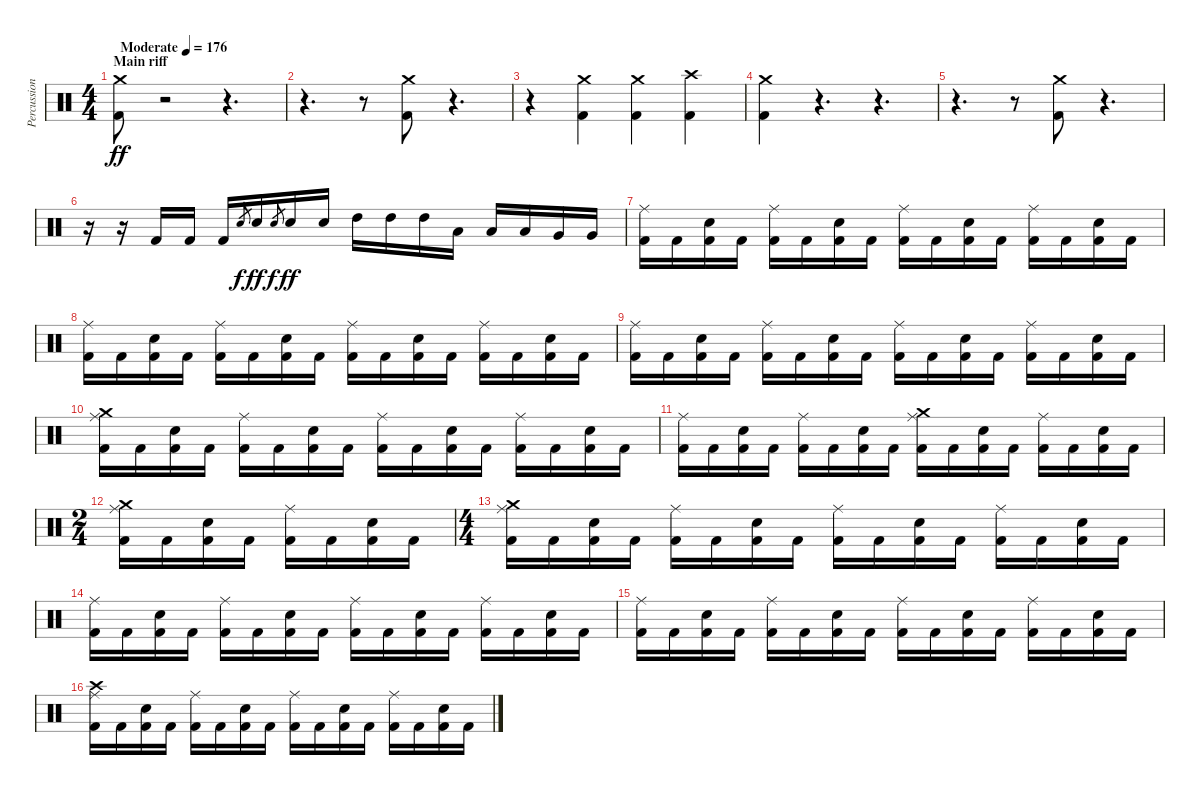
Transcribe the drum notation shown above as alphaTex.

\track ("Percussion" "Percussion") {instrument percussion}
\staff {score}
\articulation defaults
\ts (4 4)
\section ("" "Main riff")
\tempo (176 "Moderate")
\clef neutral
\ks c
("Kick (hit) 2" "Crash medium (hit)").8{dy ff} r.2 r.4{d} |
r.4{d} r.8 ("Kick (hit) 2" "Crash medium (hit)").8 r.4{d} |
r.4 ("Kick (hit) 2" "Crash medium (hit)").4 ("Kick (hit) 2" "Crash medium (hit)").4 ("Kick (hit) 2" "Crash high (hit)").4 |
("Kick (hit) 2" "Crash medium (hit)").4 r.4{d} r.4{d} |
r.4{d} r.8 ("Kick (hit) 2" "Crash medium (hit)").8 r.4{d} |
r.16 r.16 "Kick (hit) 2".16 "Kick (hit) 2".16 "Kick (hit) 2".16 "Electric Snare (hit)".8{gr dy f} "Electric Snare (hit)".16{dy ff} "Electric Snare (hit)".8{gr dy f} "Electric Snare (hit)".16{dy ff} "Electric Snare (hit)".16 "High Tom (hit)".16 "High Tom (hit)".16 "High Tom (hit)".16 "Low Tom (hit)".16 "Low Tom (hit)".16 "Low Tom (hit)".16 "Very Low Tom (hit)".16 "Very Low Tom (hit)".16 |
("Kick (hit) 2" "Ride (middle)").16 "Kick (hit) 2".16 ("Kick (hit) 2" "Electric Snare (hit)").16 "Kick (hit) 2".16 ("Kick (hit) 2" "Ride (middle)").16 "Kick (hit) 2".16 ("Kick (hit) 2" "Electric Snare (hit)").16 "Kick (hit) 2".16 ("Kick (hit) 2" "Ride (middle)").16 "Kick (hit) 2".16 ("Kick (hit) 2" "Electric Snare (hit)").16 "Kick (hit) 2".16 ("Kick (hit) 2" "Ride (middle)").16 "Kick (hit) 2".16 ("Kick (hit) 2" "Electric Snare (hit)").16 "Kick (hit) 2".16 |
("Kick (hit) 2" "Ride (middle)").16 "Kick (hit) 2".16 ("Kick (hit) 2" "Electric Snare (hit)").16 "Kick (hit) 2".16 ("Kick (hit) 2" "Ride (middle)").16 "Kick (hit) 2".16 ("Kick (hit) 2" "Electric Snare (hit)").16 "Kick (hit) 2".16 ("Kick (hit) 2" "Ride (middle)").16 "Kick (hit) 2".16 ("Kick (hit) 2" "Electric Snare (hit)").16 "Kick (hit) 2".16 ("Kick (hit) 2" "Ride (middle)").16 "Kick (hit) 2".16 ("Kick (hit) 2" "Electric Snare (hit)").16 "Kick (hit) 2".16 |
("Kick (hit) 2" "Ride (middle)").16 "Kick (hit) 2".16 ("Kick (hit) 2" "Electric Snare (hit)").16 "Kick (hit) 2".16 ("Kick (hit) 2" "Ride (middle)").16 "Kick (hit) 2".16 ("Kick (hit) 2" "Electric Snare (hit)").16 "Kick (hit) 2".16 ("Kick (hit) 2" "Ride (middle)").16 "Kick (hit) 2".16 ("Kick (hit) 2" "Electric Snare (hit)").16 "Kick (hit) 2".16 ("Kick (hit) 2" "Ride (middle)").16 "Kick (hit) 2".16 ("Kick (hit) 2" "Electric Snare (hit)").16 "Kick (hit) 2".16 |
("Kick (hit) 2" "Ride (middle)" "Crash medium (hit)").16 "Kick (hit) 2".16 ("Kick (hit) 2" "Electric Snare (hit)").16 "Kick (hit) 2".16 ("Kick (hit) 2" "Ride (middle)").16 "Kick (hit) 2".16 ("Kick (hit) 2" "Electric Snare (hit)").16 "Kick (hit) 2".16 ("Kick (hit) 2" "Ride (middle)").16 "Kick (hit) 2".16 ("Kick (hit) 2" "Electric Snare (hit)").16 "Kick (hit) 2".16 ("Kick (hit) 2" "Ride (middle)").16 "Kick (hit) 2".16 ("Kick (hit) 2" "Electric Snare (hit)").16 "Kick (hit) 2".16 |
("Kick (hit) 2" "Ride (middle)").16 "Kick (hit) 2".16 ("Kick (hit) 2" "Electric Snare (hit)").16 "Kick (hit) 2".16 ("Kick (hit) 2" "Ride (middle)").16 "Kick (hit) 2".16 ("Kick (hit) 2" "Electric Snare (hit)").16 "Kick (hit) 2".16 ("Kick (hit) 2" "Ride (middle)" "Crash medium (hit)").16 "Kick (hit) 2".16 ("Kick (hit) 2" "Electric Snare (hit)").16 "Kick (hit) 2".16 ("Kick (hit) 2" "Ride (middle)").16 "Kick (hit) 2".16 ("Kick (hit) 2" "Electric Snare (hit)").16 "Kick (hit) 2".16 |
\ts (2 4)
("Kick (hit) 2" "Ride (middle)" "Crash medium (hit)").16 "Kick (hit) 2".16 ("Kick (hit) 2" "Electric Snare (hit)").16 "Kick (hit) 2".16 ("Kick (hit) 2" "Ride (middle)").16 "Kick (hit) 2".16 ("Kick (hit) 2" "Electric Snare (hit)").16 "Kick (hit) 2".16 |
\ts (4 4)
("Kick (hit) 2" "Ride (middle)" "Crash medium (hit)").16 "Kick (hit) 2".16 ("Kick (hit) 2" "Electric Snare (hit)").16 "Kick (hit) 2".16 ("Kick (hit) 2" "Ride (middle)").16 "Kick (hit) 2".16 ("Kick (hit) 2" "Electric Snare (hit)").16 "Kick (hit) 2".16 ("Kick (hit) 2" "Ride (middle)").16 "Kick (hit) 2".16 ("Kick (hit) 2" "Electric Snare (hit)").16 "Kick (hit) 2".16 ("Kick (hit) 2" "Ride (middle)").16 "Kick (hit) 2".16 ("Kick (hit) 2" "Electric Snare (hit)").16 "Kick (hit) 2".16 |
("Kick (hit) 2" "Ride (middle)").16 "Kick (hit) 2".16 ("Kick (hit) 2" "Electric Snare (hit)").16 "Kick (hit) 2".16 ("Kick (hit) 2" "Ride (middle)").16 "Kick (hit) 2".16 ("Kick (hit) 2" "Electric Snare (hit)").16 "Kick (hit) 2".16 ("Kick (hit) 2" "Ride (middle)").16 "Kick (hit) 2".16 ("Kick (hit) 2" "Electric Snare (hit)").16 "Kick (hit) 2".16 ("Kick (hit) 2" "Ride (middle)").16 "Kick (hit) 2".16 ("Kick (hit) 2" "Electric Snare (hit)").16 "Kick (hit) 2".16 |
("Kick (hit) 2" "Ride (middle)").16 "Kick (hit) 2".16 ("Kick (hit) 2" "Electric Snare (hit)").16 "Kick (hit) 2".16 ("Kick (hit) 2" "Ride (middle)").16 "Kick (hit) 2".16 ("Kick (hit) 2" "Electric Snare (hit)").16 "Kick (hit) 2".16 ("Kick (hit) 2" "Ride (middle)").16 "Kick (hit) 2".16 ("Kick (hit) 2" "Electric Snare (hit)").16 "Kick (hit) 2".16 ("Kick (hit) 2" "Ride (middle)").16 "Kick (hit) 2".16 ("Kick (hit) 2" "Electric Snare (hit)").16 "Kick (hit) 2".16 |
("Kick (hit) 2" "Ride (middle)" "Crash high (hit)").16 "Kick (hit) 2".16 ("Kick (hit) 2" "Electric Snare (hit)").16 "Kick (hit) 2".16 ("Kick (hit) 2" "Ride (middle)").16 "Kick (hit) 2".16 ("Kick (hit) 2" "Electric Snare (hit)").16 "Kick (hit) 2".16 ("Kick (hit) 2" "Ride (middle)").16 "Kick (hit) 2".16 ("Kick (hit) 2" "Electric Snare (hit)").16 "Kick (hit) 2".16 ("Kick (hit) 2" "Ride (middle)").16 "Kick (hit) 2".16 ("Kick (hit) 2" "Electric Snare (hit)").16 "Kick (hit) 2".16
